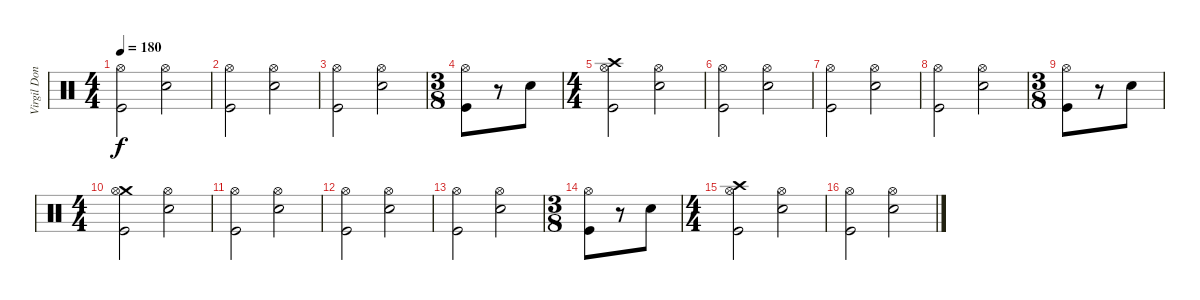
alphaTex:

\track ("Virgil Donati" "Virgil Don") {instrument percussion}
\staff {score}
\articulation defaults
\ts (4 4)
\tempo 180
\clef neutral
\ks c
("Hi-Hat (open)" "Kick (hit)").2{dy f} ("Hi-Hat (open)" "Electric Snare (hit)").2 |
("Hi-Hat (open)" "Kick (hit)").2 ("Hi-Hat (open)" "Electric Snare (hit)").2 |
("Hi-Hat (open)" "Kick (hit)").2 ("Hi-Hat (open)" "Electric Snare (hit)").2 |
\ts (3 8)
("Hi-Hat (open)" "Kick (hit)").8 r.8 "Electric Snare (hit)".8 |
\ts (4 4)
("Crash high (hit)" "Hi-Hat (open)" "Kick (hit)").2{volume 13} ("Hi-Hat (open)" "Electric Snare (hit)").2 |
("Hi-Hat (open)" "Kick (hit)").2 ("Hi-Hat (open)" "Electric Snare (hit)").2 |
("Hi-Hat (open)" "Kick (hit)").2 ("Hi-Hat (open)" "Electric Snare (hit)").2 |
("Hi-Hat (open)" "Kick (hit)").2 ("Hi-Hat (open)" "Electric Snare (hit)").2 |
\ts (3 8)
("Hi-Hat (open)" "Kick (hit)").8 r.8 "Electric Snare (hit)".8 |
\ts (4 4)
("Crash medium (hit)" "Hi-Hat (open)" "Kick (hit)").2 ("Hi-Hat (open)" "Electric Snare (hit)").2 |
("Hi-Hat (open)" "Kick (hit)").2 ("Hi-Hat (open)" "Electric Snare (hit)").2 |
("Hi-Hat (open)" "Kick (hit)").2 ("Hi-Hat (open)" "Electric Snare (hit)").2 |
("Hi-Hat (open)" "Kick (hit)").2 ("Hi-Hat (open)" "Electric Snare (hit)").2 |
\ts (3 8)
("Hi-Hat (open)" "Kick (hit)").8 r.8 "Electric Snare (hit)".8 |
\ts (4 4)
("Crash high (hit)" "Hi-Hat (open)" "Kick (hit)").2{volume 13} ("Hi-Hat (open)" "Electric Snare (hit)").2 |
("Hi-Hat (open)" "Kick (hit)").2 ("Hi-Hat (open)" "Electric Snare (hit)").2
